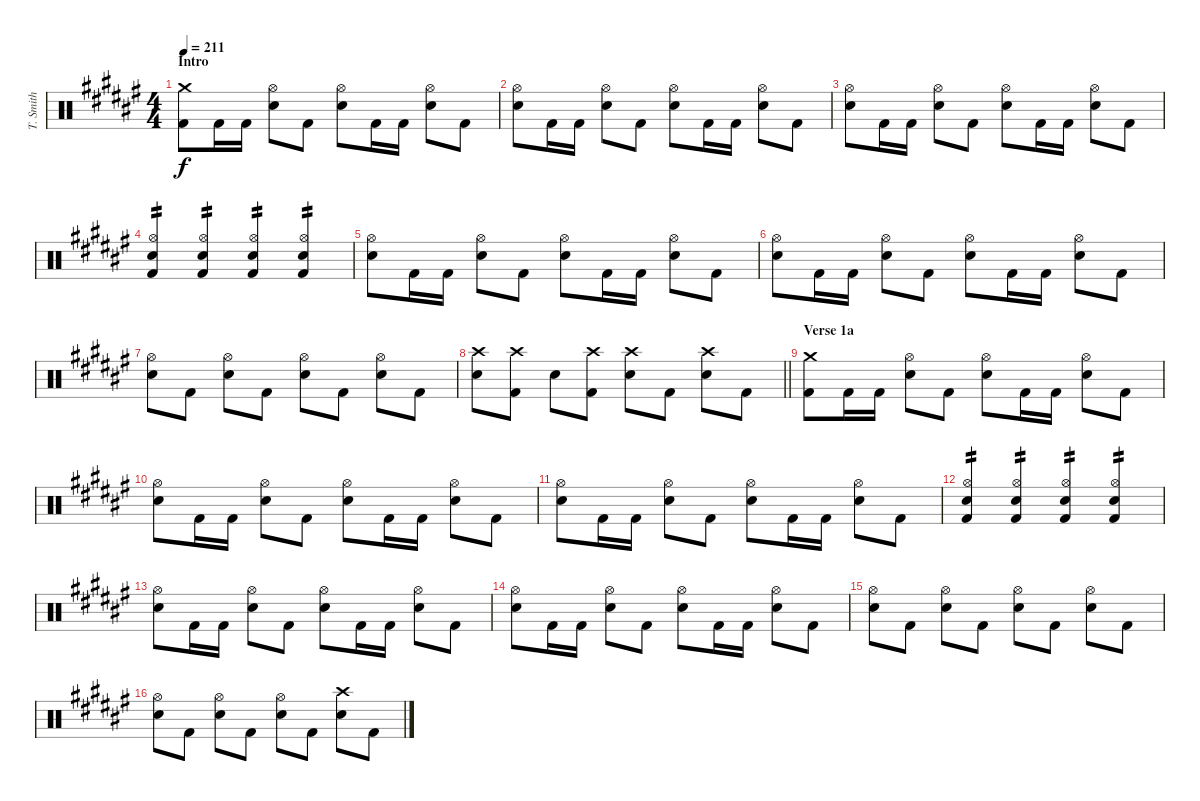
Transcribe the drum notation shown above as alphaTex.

\track ("T. Smith" "T. Smith") {instrument percussion}
\staff {score}
\articulation defaults
\ts (4 4)
\section ("" "Intro")
\tempo 211
\clef neutral
\ks d#minor
("Crash medium (hit)" "Kick (hit) 2").8{dy f} "Kick (hit) 2".16 "Kick (hit) 2".16 ("Hi-Hat (open)" "Electric Snare (hit)").8 "Kick (hit) 2".8 ("Hi-Hat (open)" "Electric Snare (hit)").8 "Kick (hit) 2".16 "Kick (hit) 2".16 ("Hi-Hat (open)" "Electric Snare (hit)").8 "Kick (hit) 2".8 |
("Hi-Hat (open)" "Electric Snare (hit)").8 "Kick (hit) 2".16 "Kick (hit) 2".16 ("Hi-Hat (open)" "Electric Snare (hit)").8 "Kick (hit) 2".8 ("Hi-Hat (open)" "Electric Snare (hit)").8 "Kick (hit) 2".16 "Kick (hit) 2".16 ("Hi-Hat (open)" "Electric Snare (hit)").8 "Kick (hit) 2".8 |
("Hi-Hat (open)" "Electric Snare (hit)").8 "Kick (hit) 2".16 "Kick (hit) 2".16 ("Hi-Hat (open)" "Electric Snare (hit)").8 "Kick (hit) 2".8 ("Hi-Hat (open)" "Electric Snare (hit)").8 "Kick (hit) 2".16 "Kick (hit) 2".16 ("Hi-Hat (open)" "Electric Snare (hit)").8 "Kick (hit) 2".8 |
("Hi-Hat (open)" "Electric Snare (hit)" "Kick (hit) 2").4{tp 2} ("Hi-Hat (open)" "Electric Snare (hit)" "Kick (hit) 2").4{tp 2} ("Hi-Hat (open)" "Electric Snare (hit)" "Kick (hit) 2").4{tp 2} ("Hi-Hat (open)" "Electric Snare (hit)" "Kick (hit) 2").4{tp 2} |
("Hi-Hat (open)" "Electric Snare (hit)").8 "Kick (hit) 2".16 "Kick (hit) 2".16 ("Hi-Hat (open)" "Electric Snare (hit)").8 "Kick (hit) 2".8 ("Hi-Hat (open)" "Electric Snare (hit)").8 "Kick (hit) 2".16 "Kick (hit) 2".16 ("Hi-Hat (open)" "Electric Snare (hit)").8 "Kick (hit) 2".8 |
("Hi-Hat (open)" "Electric Snare (hit)").8 "Kick (hit) 2".16 "Kick (hit) 2".16 ("Hi-Hat (open)" "Electric Snare (hit)").8 "Kick (hit) 2".8 ("Hi-Hat (open)" "Electric Snare (hit)").8 "Kick (hit) 2".16 "Kick (hit) 2".16 ("Hi-Hat (open)" "Electric Snare (hit)").8 "Kick (hit) 2".8 |
("Hi-Hat (open)" "Electric Snare (hit)").8 "Kick (hit) 2".8 ("Hi-Hat (open)" "Electric Snare (hit)").8 "Kick (hit) 2".8 ("Hi-Hat (open)" "Electric Snare (hit)").8 "Kick (hit) 2".8 ("Hi-Hat (open)" "Electric Snare (hit)").8 "Kick (hit) 2".8 |
\barLineRight lightlight
("Crash high (hit)" "Electric Snare (hit)").8 ("Crash high (hit)" "Kick (hit) 2").8 "Electric Snare (hit)".8 ("Crash high (hit)" "Kick (hit) 2").8 ("Crash high (hit)" "Electric Snare (hit)").8 "Kick (hit) 2".8 ("Crash high (hit)" "Electric Snare (hit)").8 "Kick (hit) 2".8 |
\section ("" "Verse 1a")
("Crash medium (hit)" "Kick (hit) 2").8 "Kick (hit) 2".16 "Kick (hit) 2".16 ("Hi-Hat (open)" "Electric Snare (hit)").8 "Kick (hit) 2".8 ("Hi-Hat (open)" "Electric Snare (hit)").8 "Kick (hit) 2".16 "Kick (hit) 2".16 ("Hi-Hat (open)" "Electric Snare (hit)").8 "Kick (hit) 2".8 |
("Hi-Hat (open)" "Electric Snare (hit)").8 "Kick (hit) 2".16 "Kick (hit) 2".16 ("Hi-Hat (open)" "Electric Snare (hit)").8 "Kick (hit) 2".8 ("Hi-Hat (open)" "Electric Snare (hit)").8 "Kick (hit) 2".16 "Kick (hit) 2".16 ("Hi-Hat (open)" "Electric Snare (hit)").8 "Kick (hit) 2".8 |
("Hi-Hat (open)" "Electric Snare (hit)").8 "Kick (hit) 2".16 "Kick (hit) 2".16 ("Hi-Hat (open)" "Electric Snare (hit)").8 "Kick (hit) 2".8 ("Hi-Hat (open)" "Electric Snare (hit)").8 "Kick (hit) 2".16 "Kick (hit) 2".16 ("Hi-Hat (open)" "Electric Snare (hit)").8 "Kick (hit) 2".8 |
("Hi-Hat (open)" "Electric Snare (hit)" "Kick (hit) 2").4{tp 2} ("Hi-Hat (open)" "Electric Snare (hit)" "Kick (hit) 2").4{tp 2} ("Hi-Hat (open)" "Electric Snare (hit)" "Kick (hit) 2").4{tp 2} ("Hi-Hat (open)" "Electric Snare (hit)" "Kick (hit) 2").4{tp 2} |
("Hi-Hat (open)" "Electric Snare (hit)").8 "Kick (hit) 2".16 "Kick (hit) 2".16 ("Hi-Hat (open)" "Electric Snare (hit)").8 "Kick (hit) 2".8 ("Hi-Hat (open)" "Electric Snare (hit)").8 "Kick (hit) 2".16 "Kick (hit) 2".16 ("Hi-Hat (open)" "Electric Snare (hit)").8 "Kick (hit) 2".8 |
("Hi-Hat (open)" "Electric Snare (hit)").8 "Kick (hit) 2".16 "Kick (hit) 2".16 ("Hi-Hat (open)" "Electric Snare (hit)").8 "Kick (hit) 2".8 ("Hi-Hat (open)" "Electric Snare (hit)").8 "Kick (hit) 2".16 "Kick (hit) 2".16 ("Hi-Hat (open)" "Electric Snare (hit)").8 "Kick (hit) 2".8 |
("Hi-Hat (open)" "Electric Snare (hit)").8 "Kick (hit) 2".8 ("Hi-Hat (open)" "Electric Snare (hit)").8 "Kick (hit) 2".8 ("Hi-Hat (open)" "Electric Snare (hit)").8 "Kick (hit) 2".8 ("Hi-Hat (open)" "Electric Snare (hit)").8 "Kick (hit) 2".8 |
("Hi-Hat (open)" "Electric Snare (hit)").8 "Kick (hit) 2".8 ("Hi-Hat (open)" "Electric Snare (hit)").8 "Kick (hit) 2".8 ("Hi-Hat (open)" "Electric Snare (hit)").8 "Kick (hit) 2".8 ("Crash high (hit)" "Electric Snare (hit)").8 "Kick (hit) 2".8
